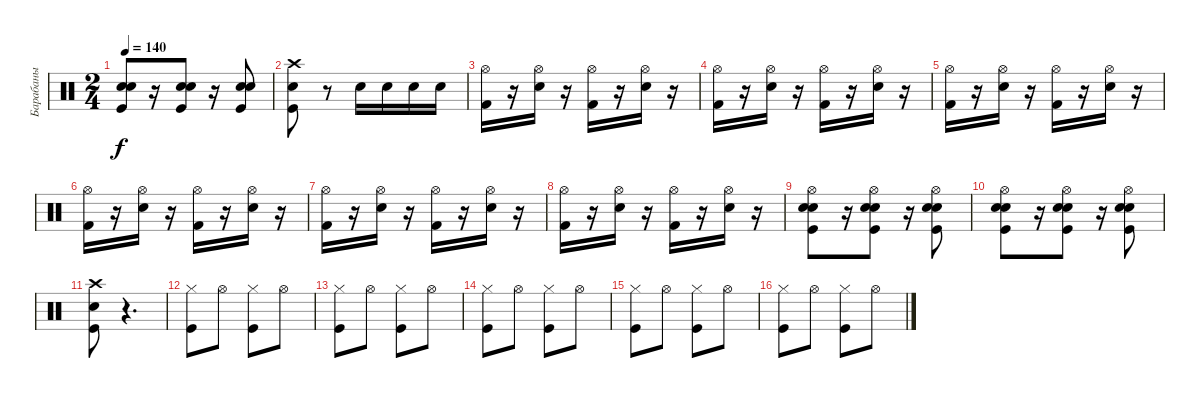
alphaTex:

\track ("Барабаны" "Барабаны") {instrument percussion}
\staff {score}
\articulation defaults
\ts (2 4)
\tempo 140
\clef neutral
\ks c
("Electric Snare (hit)" "Electric Snare (hit)" "Kick (hit)").8{dy f} r.16 ("Electric Snare (hit)" "Kick (hit)" "Electric Snare (hit)").8 r.16 ("Electric Snare (hit)" "Kick (hit)" "Electric Snare (hit)").8 |
("Kick (hit)" "Electric Snare (hit)" "Crash high (hit)").8 r.8 "Electric Snare (hit)".16 "Electric Snare (hit)".16 "Electric Snare (hit)".16 "Electric Snare (hit)".16 |
("Kick (hit) 2" "Hi-Hat (open)").16 r.16 ("Electric Snare (hit)" "Hi-Hat (open)").16 r.16 ("Kick (hit) 2" "Hi-Hat (open)").16 r.16 ("Electric Snare (hit)" "Hi-Hat (open)").16 r.16 |
("Kick (hit) 2" "Hi-Hat (open)").16 r.16 ("Electric Snare (hit)" "Hi-Hat (open)").16 r.16 ("Kick (hit) 2" "Hi-Hat (open)").16 r.16 ("Electric Snare (hit)" "Hi-Hat (open)").16 r.16 |
("Kick (hit) 2" "Hi-Hat (open)").16 r.16 ("Electric Snare (hit)" "Hi-Hat (open)").16 r.16 ("Kick (hit) 2" "Hi-Hat (open)").16 r.16 ("Electric Snare (hit)" "Hi-Hat (open)").16 r.16 |
("Kick (hit) 2" "Hi-Hat (open)").16 r.16 ("Electric Snare (hit)" "Hi-Hat (open)").16 r.16 ("Kick (hit) 2" "Hi-Hat (open)").16 r.16 ("Electric Snare (hit)" "Hi-Hat (open)").16 r.16 |
("Kick (hit) 2" "Hi-Hat (open)").16 r.16 ("Electric Snare (hit)" "Hi-Hat (open)").16 r.16 ("Kick (hit) 2" "Hi-Hat (open)").16 r.16 ("Electric Snare (hit)" "Hi-Hat (open)").16 r.16 |
("Kick (hit) 2" "Hi-Hat (open)").16 r.16 ("Electric Snare (hit)" "Hi-Hat (open)").16 r.16 ("Kick (hit) 2" "Hi-Hat (open)").16 r.16 ("Electric Snare (hit)" "Hi-Hat (open)").16 r.16 |
("Electric Snare (hit)" "Electric Snare (hit)" "Kick (hit)" "Hi-Hat (open)").8 r.16 ("Electric Snare (hit)" "Kick (hit)" "Electric Snare (hit)" "Hi-Hat (open)").8 r.16 ("Electric Snare (hit)" "Kick (hit)" "Electric Snare (hit)" "Hi-Hat (open)").8 |
("Electric Snare (hit)" "Electric Snare (hit)" "Kick (hit)" "Hi-Hat (open)").8 r.16 ("Electric Snare (hit)" "Kick (hit)" "Electric Snare (hit)" "Hi-Hat (open)").8 r.16 ("Electric Snare (hit)" "Kick (hit)" "Electric Snare (hit)" "Hi-Hat (open)").8 |
("Kick (hit)" "Electric Snare (hit)" "Crash high (hit)").8 r.4{d} |
("Kick (hit)" "Hi-Hat (closed)").8 "Hi-Hat (open)".8 ("Kick (hit)" "Hi-Hat (closed)").8 "Hi-Hat (open)".8 |
("Kick (hit)" "Hi-Hat (closed)").8 "Hi-Hat (open)".8 ("Kick (hit)" "Hi-Hat (closed)").8 "Hi-Hat (open)".8 |
("Kick (hit)" "Hi-Hat (closed)").8 "Hi-Hat (open)".8 ("Kick (hit)" "Hi-Hat (closed)").8 "Hi-Hat (open)".8 |
("Kick (hit)" "Hi-Hat (closed)").8 "Hi-Hat (open)".8 ("Kick (hit)" "Hi-Hat (closed)").8 "Hi-Hat (open)".8 |
("Kick (hit)" "Hi-Hat (closed)").8 "Hi-Hat (open)".8 ("Kick (hit)" "Hi-Hat (closed)").8 "Hi-Hat (open)".8
